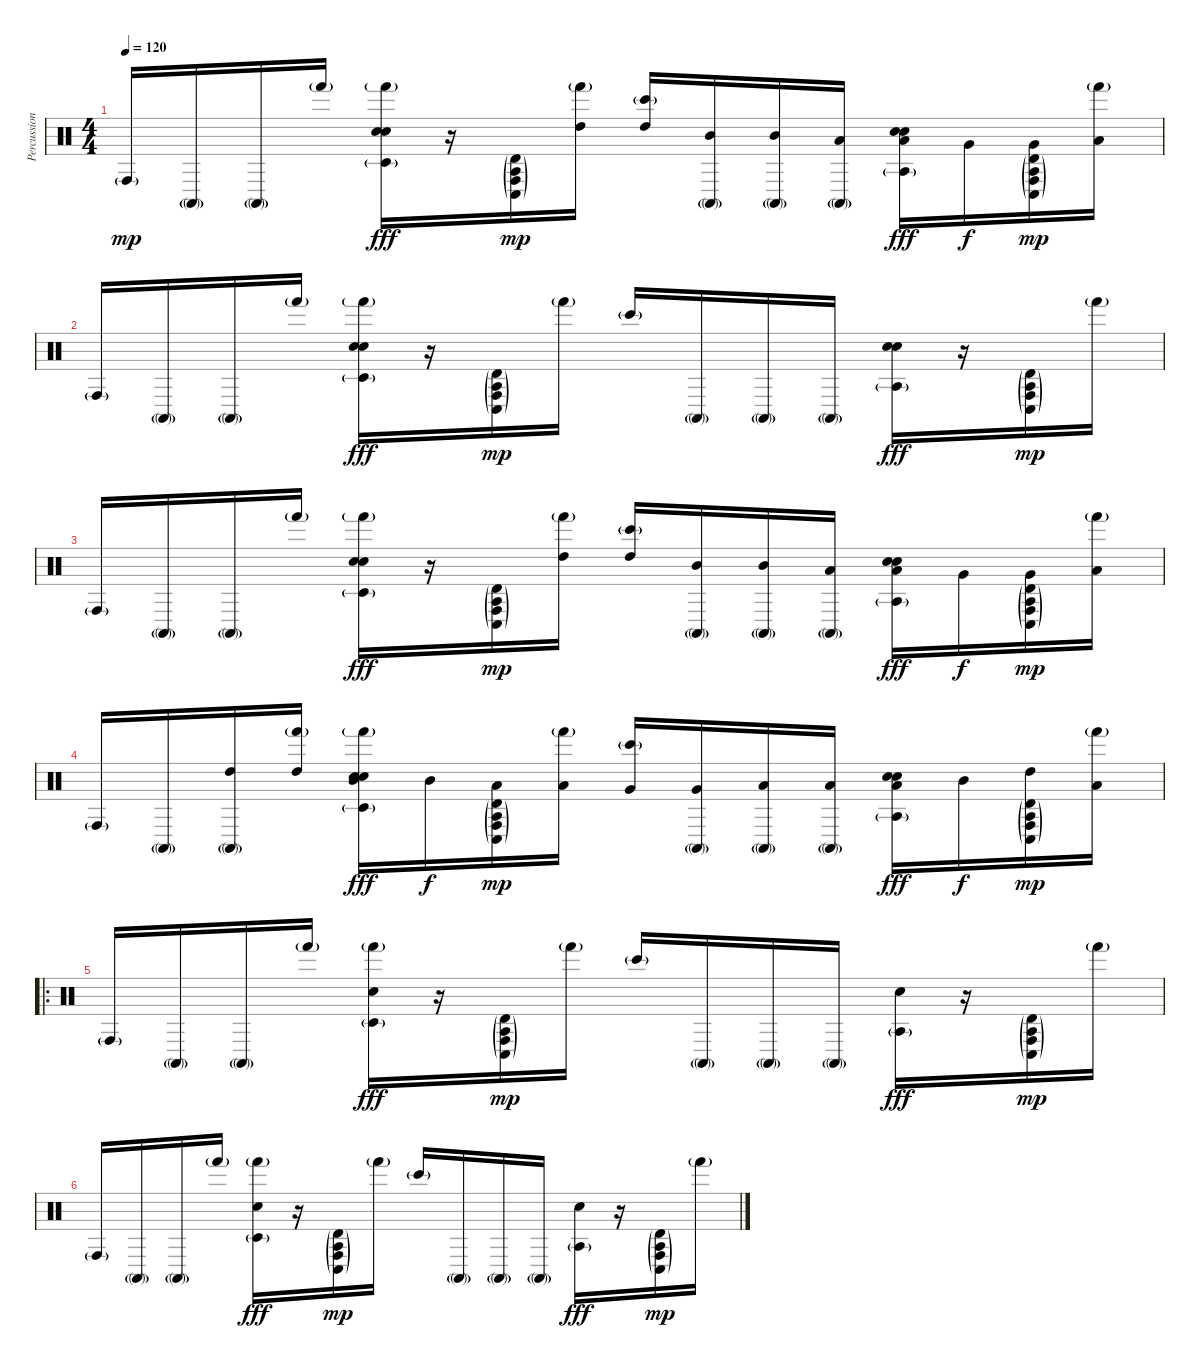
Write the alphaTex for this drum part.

\track ("Percussions" "Percussion") {instrument percussion}
\staff {score}
\articulation defaults
\ts (4 4)
\tempo 120
\clef neutral
\ks c "Conga high (hit)"{g}.16{dy mp} "Conga high (mute)"{g}.16 "Conga high (mute)"{g}.16 "Hand (hit)"{g}.16
("Hand (hit)"{g} "Timbale low (hit)"{g} "Hand Clap (hit)" "Hand Clap (hit)").16{dy fff} r.16 ("Agogo tow (hit)"{g} "Conga high (hit)"{g} "Conga low (hit)"{g} "Timbale high (hit)"{g}).16{dy mp} ("Hand (hit)"{g} "High Tom (hit)").16 ("Bongo High (hit)"{g} "High Tom (hit)").16 ("Conga high (mute)"{g} "Mid Tom (hit)").16 ("Conga high (mute)"{g} "Mid Tom (hit)").16 ("Conga high (mute)"{g} "Low Tom (hit)").16 ("Agogo tow (hit)"{g} "Hand Clap (hit)" "Low Tom (hit)" "Hand Clap (hit)").16{dy fff} "Very Low Tom (hit)".16{dy f} ("Agogo tow (hit)"{g} "Conga high (hit)"{g} "Conga low (hit)"{g} "Timbale high (hit)"{g} "Very Low Tom (hit)").16{dy mp} ("Hand (hit)"{g} "Low Floor Tom (hit)").16 |
"Conga high (hit)"{g}.16 "Conga high (mute)"{g}.16 "Conga high (mute)"{g}.16 "Hand (hit)"{g}.16 ("Hand (hit)"{g} "Timbale low (hit)"{g} "Hand Clap (hit)" "Hand Clap (hit)").16{dy fff} r.16 ("Agogo tow (hit)"{g} "Conga high (hit)"{g} "Conga low (hit)"{g} "Timbale high (hit)"{g}).16{dy mp} "Hand (hit)"{g}.16 "Bongo High (hit)"{g}.16 "Conga high (mute)"{g}.16 "Conga high (mute)"{g}.16 "Conga high (mute)"{g}.16 ("Agogo tow (hit)"{g} "Hand Clap (hit)" "Hand Clap (hit)").16{dy fff} r.16 ("Agogo tow (hit)"{g} "Conga high (hit)"{g} "Conga low (hit)"{g} "Timbale high (hit)"{g}).16{dy mp} "Hand (hit)"{g}.16 |
"Conga high (hit)"{g}.16 "Conga high (mute)"{g}.16 "Conga high (mute)"{g}.16 "Hand (hit)"{g}.16 ("Hand (hit)"{g} "Timbale low (hit)"{g} "Hand Clap (hit)" "Hand Clap (hit)").16{dy fff} r.16 ("Agogo tow (hit)"{g} "Conga high (hit)"{g} "Conga low (hit)"{g} "Timbale high (hit)"{g}).16{dy mp} ("Hand (hit)"{g} "High Tom (hit)").16 ("Bongo High (hit)"{g} "High Tom (hit)").16 ("Conga high (mute)"{g} "Mid Tom (hit)").16 ("Conga high (mute)"{g} "Mid Tom (hit)").16 ("Conga high (mute)"{g} "Low Tom (hit)").16 ("Agogo tow (hit)"{g} "Hand Clap (hit)" "Low Tom (hit)" "Hand Clap (hit)").16{dy fff} "Very Low Tom (hit)".16{dy f} ("Agogo tow (hit)"{g} "Conga high (hit)"{g} "Conga low (hit)"{g} "Timbale high (hit)"{g} "Very Low Tom (hit)").16{dy mp} ("Hand (hit)"{g} "Low Floor Tom (hit)").16 |
"Conga high (hit)"{g}.16 "Conga high (mute)"{g}.16 ("Conga high (mute)"{g} "High Tom (hit)").16 ("Hand (hit)"{g} "High Tom (hit)").16 ("Hand (hit)"{g} "Timbale low (hit)"{g} "Hand Clap (hit)" "Mid Tom (hit)" "Hand Clap (hit)").16{dy fff} "Mid Tom (hit)".16{dy f} ("Agogo tow (hit)"{g} "Conga high (hit)"{g} "Conga low (hit)"{g} "Timbale high (hit)"{g} "Low Tom (hit)").16{dy mp} ("Hand (hit)"{g} "Low Tom (hit)").16 ("Bongo High (hit)"{g} "Very Low Tom (hit)").16 ("Conga high (mute)"{g} "Very Low Tom (hit)").16 ("Conga high (mute)"{g} "Low Floor Tom (hit)").16 ("Conga high (mute)"{g} "Low Floor Tom (hit)").16 ("Agogo tow (hit)"{g} "Hand Clap (hit)" "Low Tom (hit)" "Hand Clap (hit)").16{dy fff} "Mid Tom (hit)".16{dy f} ("Agogo tow (hit)"{g} "Conga high (hit)"{g} "Conga low (hit)"{g} "Timbale high (hit)"{g} "High Tom (hit)").16{dy mp} ("Hand (hit)"{g} "Low Floor Tom (hit)").16 |
\ro "Conga high (hit)"{g}.16 "Conga high (mute)"{g}.16 "Conga high (mute)"{g}.16 "Hand (hit)"{g}.16
("Hand (hit)"{g} "Timbale low (hit)"{g} "Hand Clap (hit)").16{dy fff} r.16 ("Agogo tow (hit)"{g} "Conga high (hit)"{g} "Conga low (hit)"{g} "Timbale high (hit)"{g}).16{dy mp} "Hand (hit)"{g}.16 "Bongo High (hit)"{g}.16 "Conga high (mute)"{g}.16 "Conga high (mute)"{g}.16 "Conga high (mute)"{g}.16 ("Agogo tow (hit)"{g} "Hand Clap (hit)").16{dy fff} r.16 ("Agogo tow (hit)"{g} "Conga high (hit)"{g} "Conga low (hit)"{g} "Timbale high (hit)"{g}).16{dy mp} "Hand (hit)"{g}.16 |
"Conga high (hit)"{g}.16 "Conga high (mute)"{g}.16 "Conga high (mute)"{g}.16 "Hand (hit)"{g}.16 ("Hand (hit)"{g} "Timbale low (hit)"{g} "Hand Clap (hit)").16{dy fff} r.16 ("Agogo tow (hit)"{g} "Conga high (hit)"{g} "Conga low (hit)"{g} "Timbale high (hit)"{g}).16{dy mp} "Hand (hit)"{g}.16 "Bongo High (hit)"{g}.16 "Conga high (mute)"{g}.16 "Conga high (mute)"{g}.16 "Conga high (mute)"{g}.16 ("Agogo tow (hit)"{g} "Hand Clap (hit)").16{dy fff} r.16 ("Agogo tow (hit)"{g} "Conga high (hit)"{g} "Conga low (hit)"{g} "Timbale high (hit)"{g}).16{dy mp} "Hand (hit)"{g}.16
